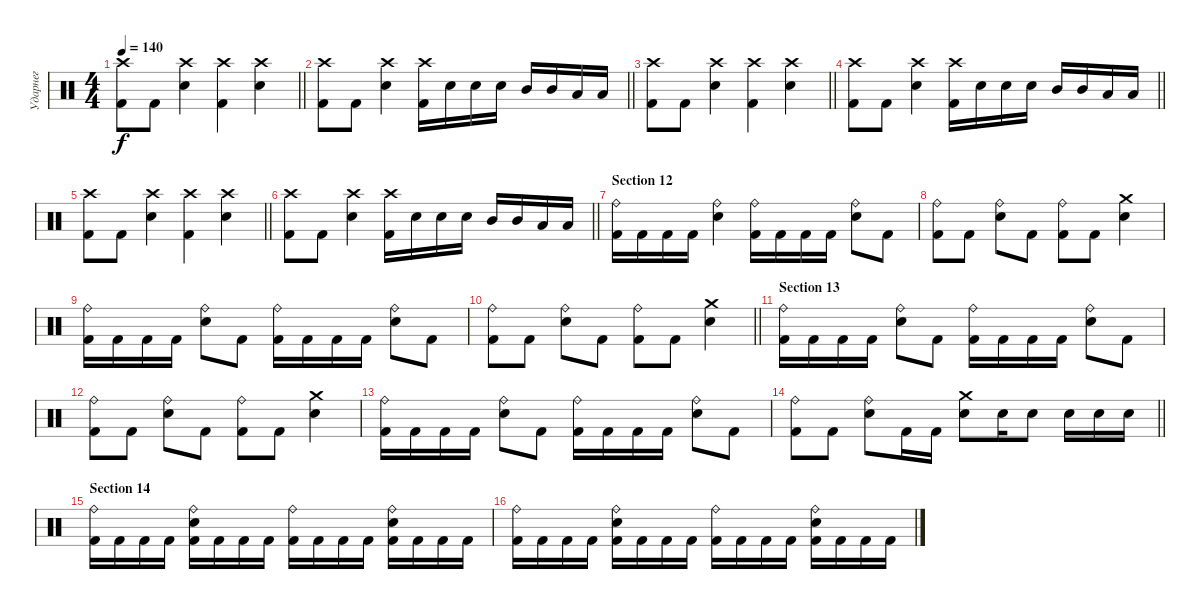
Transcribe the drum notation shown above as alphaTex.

\track ("Ударнег" "Ударнег") {instrument percussion}
\staff {score}
\articulation defaults
\ts (4 4)
\tempo 140
\clef neutral
\barLineRight lightlight
\ks c
("Crash high (hit)" "Kick (hit) 2").8{dy f} "Kick (hit) 2".8 ("Crash high (hit)" "Snare (hit) 2").4 ("Crash high (hit)" "Kick (hit) 2").4 ("Crash high (hit)" "Snare (hit) 2").4 |
\barLineRight lightlight
("Crash high (hit)" "Kick (hit) 2").8 "Kick (hit) 2".8 ("Crash high (hit)" "Snare (hit) 2").4 ("Crash high (hit)" "Kick (hit) 2").16 "Snare (hit) 2".16 "Snare (hit) 2".16 "Snare (hit) 2".16 "Mid Tom (hit)".16 "Mid Tom (hit)".16 "Low Tom (hit)".16 "Low Tom (hit)".16 |
\barLineRight lightlight
("Crash high (hit)" "Kick (hit) 2").8 "Kick (hit) 2".8 ("Crash high (hit)" "Snare (hit) 2").4 ("Crash high (hit)" "Kick (hit) 2").4 ("Crash high (hit)" "Snare (hit) 2").4 |
\barLineRight lightlight
("Crash high (hit)" "Kick (hit) 2").8 "Kick (hit) 2".8 ("Crash high (hit)" "Snare (hit) 2").4 ("Crash high (hit)" "Kick (hit) 2").16 "Snare (hit) 2".16 "Snare (hit) 2".16 "Snare (hit) 2".16 "Mid Tom (hit)".16 "Mid Tom (hit)".16 "Low Tom (hit)".16 "Low Tom (hit)".16 |
\barLineRight lightlight
("Crash high (hit)" "Kick (hit) 2").8 "Kick (hit) 2".8 ("Crash high (hit)" "Snare (hit) 2").4 ("Crash high (hit)" "Kick (hit) 2").4 ("Crash high (hit)" "Snare (hit) 2").4 |
\barLineRight lightlight
("Crash high (hit)" "Kick (hit) 2").8 "Kick (hit) 2".8 ("Crash high (hit)" "Snare (hit) 2").4 ("Crash high (hit)" "Kick (hit) 2").16 "Snare (hit) 2".16 "Snare (hit) 2".16 "Snare (hit) 2".16 "Mid Tom (hit)".16 "Mid Tom (hit)".16 "Low Tom (hit)".16 "Low Tom (hit)".16 |
\section ("" "Section 12")
("Ride (bell)" "Kick (hit) 2").16 "Kick (hit) 2".16 "Kick (hit) 2".16 "Kick (hit) 2".16 ("Ride (bell)" "Snare (hit) 2").4 ("Ride (bell)" "Kick (hit) 2").16 "Kick (hit) 2".16 "Kick (hit) 2".16 "Kick (hit) 2".16 ("Ride (bell)" "Snare (hit) 2").8 "Kick (hit) 2".8 |
("Ride (bell)" "Kick (hit) 2").8 "Kick (hit) 2".8 ("Ride (bell)" "Snare (hit) 2").8 "Kick (hit) 2".8 ("Ride (bell)" "Kick (hit) 2").8 "Kick (hit) 2".8 ("Crash medium (hit)" "Snare (hit) 2").4 |
("Ride (bell)" "Kick (hit) 2").16 "Kick (hit) 2".16 "Kick (hit) 2".16 "Kick (hit) 2".16 ("Ride (bell)" "Snare (hit) 2").8 "Kick (hit) 2".8 ("Ride (bell)" "Kick (hit) 2").16 "Kick (hit) 2".16 "Kick (hit) 2".16 "Kick (hit) 2".16 ("Ride (bell)" "Snare (hit) 2").8 "Kick (hit) 2".8 |
\barLineRight lightlight
("Ride (bell)" "Kick (hit) 2").8 "Kick (hit) 2".8 ("Ride (bell)" "Snare (hit) 2").8 "Kick (hit) 2".8 ("Ride (bell)" "Kick (hit) 2").8 "Kick (hit) 2".8 ("Crash medium (hit)" "Snare (hit) 2").4 |
\section ("" "Section 13")
("Ride (bell)" "Kick (hit) 2").16 "Kick (hit) 2".16 "Kick (hit) 2".16 "Kick (hit) 2".16 ("Ride (bell)" "Snare (hit) 2").8 "Kick (hit) 2".8 ("Ride (bell)" "Kick (hit) 2").16 "Kick (hit) 2".16 "Kick (hit) 2".16 "Kick (hit) 2".16 ("Ride (bell)" "Snare (hit) 2").8 "Kick (hit) 2".8 |
("Ride (bell)" "Kick (hit) 2").8 "Kick (hit) 2".8 ("Ride (bell)" "Snare (hit) 2").8 "Kick (hit) 2".8 ("Ride (bell)" "Kick (hit) 2").8 "Kick (hit) 2".8 ("Crash medium (hit)" "Snare (hit) 2").4 |
("Ride (bell)" "Kick (hit) 2").16 "Kick (hit) 2".16 "Kick (hit) 2".16 "Kick (hit) 2".16 ("Ride (bell)" "Snare (hit) 2").8 "Kick (hit) 2".8 ("Ride (bell)" "Kick (hit) 2").16 "Kick (hit) 2".16 "Kick (hit) 2".16 "Kick (hit) 2".16 ("Ride (bell)" "Snare (hit) 2").8 "Kick (hit) 2".8 |
\barLineRight lightlight
("Ride (bell)" "Kick (hit) 2").8 "Kick (hit) 2".8 ("Ride (bell)" "Snare (hit) 2").8 "Kick (hit) 2".16 "Kick (hit) 2".16 ("Crash medium (hit)" "Snare (hit) 2").8 "Snare (hit) 2".16 "Snare (hit) 2".8 "Snare (hit) 2".16 "Snare (hit) 2".16 "Snare (hit) 2".16 |
\section ("" "Section 14")
("Ride (bell)" "Kick (hit) 2").16 "Kick (hit) 2".16 "Kick (hit) 2".16 "Kick (hit) 2".16 ("Ride (bell)" "Snare (hit) 2" "Kick (hit) 2").16 "Kick (hit) 2".16 "Kick (hit) 2".16 "Kick (hit) 2".16 ("Ride (bell)" "Kick (hit) 2").16 "Kick (hit) 2".16 "Kick (hit) 2".16 "Kick (hit) 2".16 ("Ride (bell)" "Snare (hit) 2" "Kick (hit) 2").16 "Kick (hit) 2".16 "Kick (hit) 2".16 "Kick (hit) 2".16 |
("Ride (bell)" "Kick (hit) 2").16 "Kick (hit) 2".16 "Kick (hit) 2".16 "Kick (hit) 2".16 ("Ride (bell)" "Snare (hit) 2" "Kick (hit) 2").16 "Kick (hit) 2".16 "Kick (hit) 2".16 "Kick (hit) 2".16 ("Ride (bell)" "Kick (hit) 2").16 "Kick (hit) 2".16 "Kick (hit) 2".16 "Kick (hit) 2".16 ("Ride (bell)" "Snare (hit) 2" "Kick (hit) 2").16 "Kick (hit) 2".16 "Kick (hit) 2".16 "Kick (hit) 2".16
